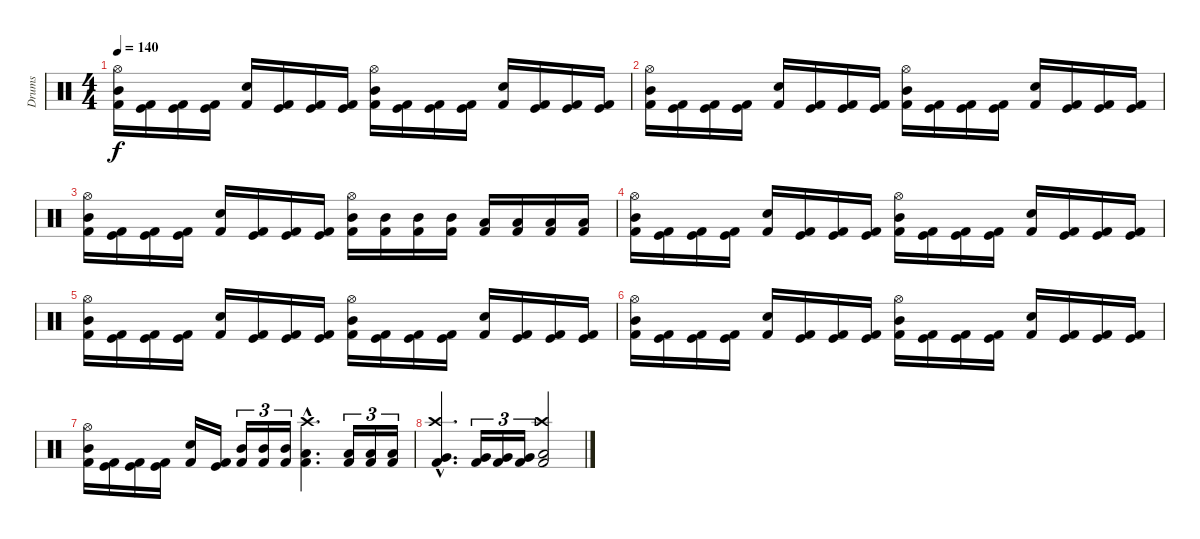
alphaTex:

\track ("Drums" "Drums") {instrument percussion}
\staff {score}
\articulation defaults
\ts (4 4)
\tempo 140
\clef neutral
\ks c
("Hi-Hat (open)" "Mid Tom (hit)" "Kick (hit) 2").16{dy f} ("Kick (hit)" "Kick (hit) 2").16 ("Kick (hit)" "Kick (hit) 2").16 ("Kick (hit)" "Kick (hit) 2").16 ("Electric Snare (hit)" "Kick (hit) 2").16 ("Kick (hit)" "Kick (hit) 2").16 ("Kick (hit)" "Kick (hit) 2").16 ("Kick (hit)" "Kick (hit) 2").16 ("Hi-Hat (open)" "Mid Tom (hit)" "Kick (hit) 2").16 ("Kick (hit)" "Kick (hit) 2").16 ("Kick (hit)" "Kick (hit) 2").16 ("Kick (hit)" "Kick (hit) 2").16 ("Electric Snare (hit)" "Kick (hit) 2").16 ("Kick (hit)" "Kick (hit) 2").16 ("Kick (hit)" "Kick (hit) 2").16 ("Kick (hit)" "Kick (hit) 2").16 |
("Hi-Hat (open)" "Mid Tom (hit)" "Kick (hit) 2").16 ("Kick (hit)" "Kick (hit) 2").16 ("Kick (hit)" "Kick (hit) 2").16 ("Kick (hit)" "Kick (hit) 2").16 ("Electric Snare (hit)" "Kick (hit) 2").16 ("Kick (hit)" "Kick (hit) 2").16 ("Kick (hit)" "Kick (hit) 2").16 ("Kick (hit)" "Kick (hit) 2").16 ("Hi-Hat (open)" "Mid Tom (hit)" "Kick (hit) 2").16 ("Kick (hit)" "Kick (hit) 2").16 ("Kick (hit)" "Kick (hit) 2").16 ("Kick (hit)" "Kick (hit) 2").16 ("Electric Snare (hit)" "Kick (hit) 2").16 ("Kick (hit)" "Kick (hit) 2").16 ("Kick (hit)" "Kick (hit) 2").16 ("Kick (hit)" "Kick (hit) 2").16 |
("Hi-Hat (open)" "Mid Tom (hit)" "Kick (hit) 2").16 ("Kick (hit)" "Kick (hit) 2").16 ("Kick (hit)" "Kick (hit) 2").16 ("Kick (hit)" "Kick (hit) 2").16 ("Electric Snare (hit)" "Kick (hit) 2").16 ("Kick (hit)" "Kick (hit) 2").16 ("Kick (hit)" "Kick (hit) 2").16 ("Kick (hit)" "Kick (hit) 2").16 ("Hi-Hat (open)" "Mid Tom (hit)" "Kick (hit) 2").16 ("Mid Tom (hit)" "Kick (hit) 2").16 ("Mid Tom (hit)" "Kick (hit) 2").16 ("Mid Tom (hit)" "Kick (hit) 2").16 ("Low Tom (hit)" "Kick (hit) 2").16 ("Low Tom (hit)" "Kick (hit) 2").16 ("Low Tom (hit)" "Kick (hit) 2").16 ("Low Tom (hit)" "Kick (hit) 2").16 |
("Hi-Hat (open)" "Mid Tom (hit)" "Kick (hit) 2").16{volume 13} ("Kick (hit)" "Kick (hit) 2").16 ("Kick (hit)" "Kick (hit) 2").16 ("Kick (hit)" "Kick (hit) 2").16 ("Electric Snare (hit)" "Kick (hit) 2").16 ("Kick (hit)" "Kick (hit) 2").16 ("Kick (hit)" "Kick (hit) 2").16 ("Kick (hit)" "Kick (hit) 2").16 ("Hi-Hat (open)" "Mid Tom (hit)" "Kick (hit) 2").16 ("Kick (hit)" "Kick (hit) 2").16 ("Kick (hit)" "Kick (hit) 2").16 ("Kick (hit)" "Kick (hit) 2").16 ("Electric Snare (hit)" "Kick (hit) 2").16 ("Kick (hit)" "Kick (hit) 2").16 ("Kick (hit)" "Kick (hit) 2").16 ("Kick (hit)" "Kick (hit) 2").16 |
("Hi-Hat (open)" "Mid Tom (hit)" "Kick (hit) 2").16 ("Kick (hit)" "Kick (hit) 2").16 ("Kick (hit)" "Kick (hit) 2").16 ("Kick (hit)" "Kick (hit) 2").16 ("Electric Snare (hit)" "Kick (hit) 2").16 ("Kick (hit)" "Kick (hit) 2").16 ("Kick (hit)" "Kick (hit) 2").16 ("Kick (hit)" "Kick (hit) 2").16 ("Hi-Hat (open)" "Mid Tom (hit)" "Kick (hit) 2").16 ("Kick (hit)" "Kick (hit) 2").16 ("Kick (hit)" "Kick (hit) 2").16 ("Kick (hit)" "Kick (hit) 2").16 ("Electric Snare (hit)" "Kick (hit) 2").16 ("Kick (hit)" "Kick (hit) 2").16 ("Kick (hit)" "Kick (hit) 2").16 ("Kick (hit)" "Kick (hit) 2").16 |
("Hi-Hat (open)" "Mid Tom (hit)" "Kick (hit) 2").16 ("Kick (hit)" "Kick (hit) 2").16 ("Kick (hit)" "Kick (hit) 2").16 ("Kick (hit)" "Kick (hit) 2").16 ("Electric Snare (hit)" "Kick (hit) 2").16 ("Kick (hit)" "Kick (hit) 2").16 ("Kick (hit)" "Kick (hit) 2").16 ("Kick (hit)" "Kick (hit) 2").16 ("Hi-Hat (open)" "Mid Tom (hit)" "Kick (hit) 2").16 ("Kick (hit)" "Kick (hit) 2").16 ("Kick (hit)" "Kick (hit) 2").16 ("Kick (hit)" "Kick (hit) 2").16 ("Electric Snare (hit)" "Kick (hit) 2").16 ("Kick (hit)" "Kick (hit) 2").16 ("Kick (hit)" "Kick (hit) 2").16 ("Kick (hit)" "Kick (hit) 2").16 |
("Hi-Hat (open)" "Mid Tom (hit)" "Kick (hit) 2").16 ("Kick (hit)" "Kick (hit) 2").16 ("Kick (hit)" "Kick (hit) 2").16 ("Kick (hit)" "Kick (hit) 2").16 ("Electric Snare (hit)" "Kick (hit) 2").16 ("Kick (hit)" "Kick (hit) 2").16 ("Mid Tom (hit)" "Kick (hit) 2").16{tu (3 2)} ("Mid Tom (hit)" "Kick (hit) 2").16{tu (3 2)} ("Mid Tom (hit)" "Kick (hit) 2").16{tu (3 2)} ("Crash high (hit)"{hac} "Low Tom (hit)"{hac} "Kick (hit) 2"{hac}).4{d} ("Low Tom (hit)" "Kick (hit) 2").16{tu (3 2)} ("Low Tom (hit)" "Kick (hit) 2").16{tu (3 2)} ("Low Tom (hit)" "Kick (hit) 2").16{tu (3 2)} |
("Crash high (hit)"{hac} "Very Low Tom (hit)"{hac} "Kick (hit) 2"{hac}).4{d} ("Very Low Tom (hit)" "Kick (hit) 2").16{tu (3 2)} ("Very Low Tom (hit)" "Kick (hit) 2").16{tu (3 2)} ("Very Low Tom (hit)" "Kick (hit) 2").16{tu (3 2)} ("Crash high (hit)" "Low Floor Tom (hit)" "Kick (hit) 2").2{volume 0}
